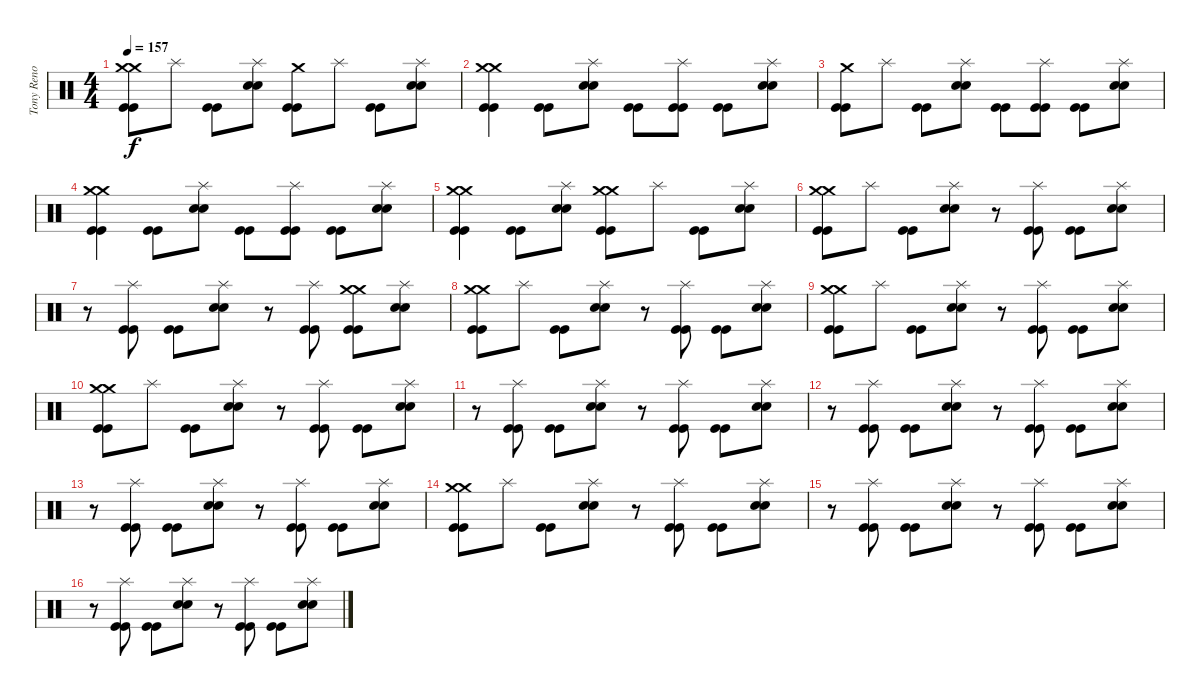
\track ("Tony Reno ( 1984 < Ian Haughland )" "Tony Reno ") {instrument percussion}
\staff {score}
\articulation defaults
\ts (4 4)
\tempo 157
\clef neutral
\ks c
("Crash medium (hit)" "Crash medium (hit)" "Kick (hit)" "Kick (hit)").8{dy f} "Splash (hit)".8 ("Kick (hit)" "Kick (hit)").8 ("Splash (hit)" "Electric Snare (hit)" "Electric Snare (hit)").8 ("Kick (hit)" "Kick (hit)" "Crash medium (hit)").8 "Splash (hit)".8 ("Kick (hit)" "Kick (hit)").8 ("Electric Snare (hit)" "Electric Snare (hit)" "Splash (hit)").8 |
("Crash medium (hit)" "Crash medium (hit)" "Kick (hit)" "Kick (hit)").4 ("Kick (hit)" "Kick (hit)").8 ("Splash (hit)" "Electric Snare (hit)" "Electric Snare (hit)").8 ("Kick (hit)" "Kick (hit)").8 ("Splash (hit)" "Kick (hit)" "Kick (hit)").8 ("Kick (hit)" "Kick (hit)").8 ("Electric Snare (hit)" "Electric Snare (hit)" "Splash (hit)").8 |
("Kick (hit)" "Kick (hit)" "Crash medium (hit)").8 "Splash (hit)".8 ("Kick (hit)" "Kick (hit)").8 ("Electric Snare (hit)" "Electric Snare (hit)" "Splash (hit)").8 ("Kick (hit)" "Kick (hit)").8 ("Kick (hit)" "Kick (hit)" "Splash (hit)").8 ("Kick (hit)" "Kick (hit)").8 ("Electric Snare (hit)" "Electric Snare (hit)" "Splash (hit)").8 |
("Crash medium (hit)" "Crash medium (hit)" "Kick (hit)" "Kick (hit)").4 ("Kick (hit)" "Kick (hit)").8 ("Splash (hit)" "Electric Snare (hit)" "Electric Snare (hit)").8 ("Kick (hit)" "Kick (hit)").8 ("Splash (hit)" "Kick (hit)" "Kick (hit)").8 ("Kick (hit)" "Kick (hit)").8 ("Electric Snare (hit)" "Electric Snare (hit)" "Splash (hit)").8 |
("Crash medium (hit)" "Crash medium (hit)" "Kick (hit)" "Kick (hit)").4 ("Kick (hit)" "Kick (hit)").8 ("Splash (hit)" "Electric Snare (hit)" "Electric Snare (hit)").8 ("Crash medium (hit)" "Kick (hit)" "Kick (hit)" "Crash medium (hit)").8 "Splash (hit)".8 ("Kick (hit)" "Kick (hit)").8 ("Electric Snare (hit)" "Electric Snare (hit)" "Splash (hit)").8 |
("Crash medium (hit)" "Kick (hit)" "Kick (hit)" "Crash medium (hit)").8 "Splash (hit)".8 ("Kick (hit)" "Kick (hit)").8 ("Splash (hit)" "Electric Snare (hit)" "Electric Snare (hit)").8 r.8 ("Kick (hit)" "Kick (hit)" "Splash (hit)").8 ("Kick (hit)" "Kick (hit)").8 ("Splash (hit)" "Electric Snare (hit)" "Electric Snare (hit)").8 |
r.8 ("Kick (hit)" "Kick (hit)" "Splash (hit)").8 ("Kick (hit)" "Kick (hit)").8 ("Splash (hit)" "Electric Snare (hit)" "Electric Snare (hit)").8 r.8 ("Kick (hit)" "Kick (hit)" "Splash (hit)").8 ("Crash medium (hit)" "Crash medium (hit)" "Kick (hit)" "Kick (hit)").8 ("Splash (hit)" "Electric Snare (hit)" "Electric Snare (hit)").8 |
("Crash medium (hit)" "Kick (hit)" "Kick (hit)" "Crash medium (hit)").8 "Splash (hit)".8 ("Kick (hit)" "Kick (hit)").8 ("Splash (hit)" "Electric Snare (hit)" "Electric Snare (hit)").8 r.8 ("Kick (hit)" "Kick (hit)" "Splash (hit)").8 ("Kick (hit)" "Kick (hit)").8 ("Splash (hit)" "Electric Snare (hit)" "Electric Snare (hit)").8 |
("Crash medium (hit)" "Kick (hit)" "Kick (hit)" "Crash medium (hit)").8 "Splash (hit)".8 ("Kick (hit)" "Kick (hit)").8 ("Splash (hit)" "Electric Snare (hit)" "Electric Snare (hit)").8 r.8 ("Kick (hit)" "Kick (hit)" "Splash (hit)").8 ("Kick (hit)" "Kick (hit)").8 ("Splash (hit)" "Electric Snare (hit)" "Electric Snare (hit)").8 |
("Crash medium (hit)" "Kick (hit)" "Kick (hit)" "Crash medium (hit)").8 "Splash (hit)".8 ("Kick (hit)" "Kick (hit)").8 ("Splash (hit)" "Electric Snare (hit)" "Electric Snare (hit)").8 r.8 ("Kick (hit)" "Kick (hit)" "Splash (hit)").8 ("Kick (hit)" "Kick (hit)").8 ("Splash (hit)" "Electric Snare (hit)" "Electric Snare (hit)").8 |
r.8 ("Kick (hit)" "Kick (hit)" "Splash (hit)").8 ("Kick (hit)" "Kick (hit)").8 ("Splash (hit)" "Electric Snare (hit)" "Electric Snare (hit)").8 r.8 ("Kick (hit)" "Kick (hit)" "Splash (hit)").8 ("Kick (hit)" "Kick (hit)").8 ("Splash (hit)" "Electric Snare (hit)" "Electric Snare (hit)").8 |
r.8 ("Kick (hit)" "Kick (hit)" "Splash (hit)").8 ("Kick (hit)" "Kick (hit)").8 ("Splash (hit)" "Electric Snare (hit)" "Electric Snare (hit)").8 r.8 ("Kick (hit)" "Kick (hit)" "Splash (hit)").8 ("Kick (hit)" "Kick (hit)").8 ("Splash (hit)" "Electric Snare (hit)" "Electric Snare (hit)").8 |
r.8 ("Kick (hit)" "Kick (hit)" "Splash (hit)").8 ("Kick (hit)" "Kick (hit)").8 ("Splash (hit)" "Electric Snare (hit)" "Electric Snare (hit)").8 r.8 ("Kick (hit)" "Kick (hit)" "Splash (hit)").8 ("Kick (hit)" "Kick (hit)").8 ("Splash (hit)" "Electric Snare (hit)" "Electric Snare (hit)").8 |
("Crash medium (hit)" "Kick (hit)" "Kick (hit)" "Crash medium (hit)").8 "Splash (hit)".8 ("Kick (hit)" "Kick (hit)").8 ("Splash (hit)" "Electric Snare (hit)" "Electric Snare (hit)").8 r.8 ("Kick (hit)" "Kick (hit)" "Splash (hit)").8 ("Kick (hit)" "Kick (hit)").8 ("Splash (hit)" "Electric Snare (hit)" "Electric Snare (hit)").8 |
r.8 ("Kick (hit)" "Kick (hit)" "Splash (hit)").8 ("Kick (hit)" "Kick (hit)").8 ("Splash (hit)" "Electric Snare (hit)" "Electric Snare (hit)").8 r.8 ("Kick (hit)" "Kick (hit)" "Splash (hit)").8 ("Kick (hit)" "Kick (hit)").8 ("Splash (hit)" "Electric Snare (hit)" "Electric Snare (hit)").8 |
r.8 ("Kick (hit)" "Kick (hit)" "Splash (hit)").8 ("Kick (hit)" "Kick (hit)").8 ("Splash (hit)" "Electric Snare (hit)" "Electric Snare (hit)").8 r.8 ("Kick (hit)" "Kick (hit)" "Splash (hit)").8 ("Kick (hit)" "Kick (hit)").8 ("Splash (hit)" "Electric Snare (hit)" "Electric Snare (hit)").8
